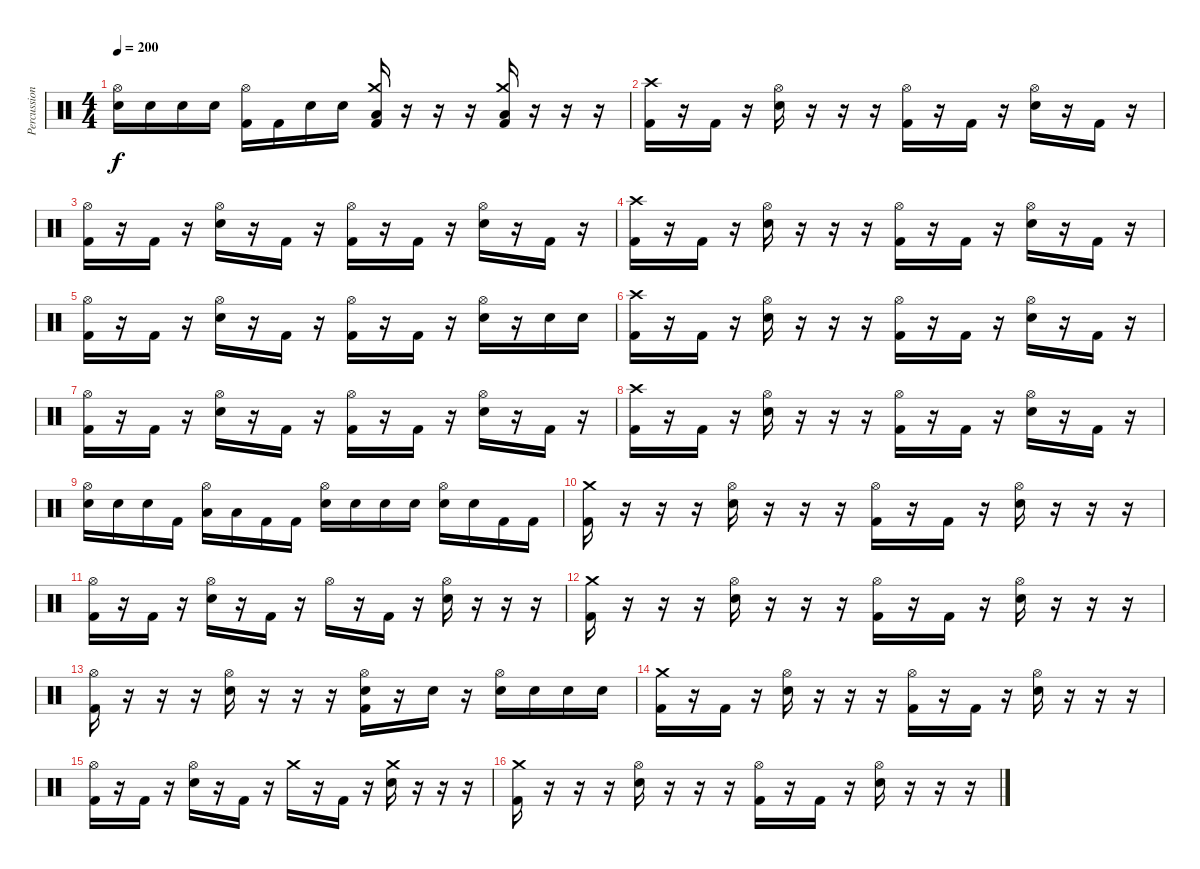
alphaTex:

\track ("Percussion" "Percussion") {instrument percussion}
\staff {score}
\articulation defaults
\ts (4 4)
\tempo 200
\clef neutral
\ks c
("Hi-Hat (open)" "Snare (hit) 2").16{dy f} "Snare (hit) 2".16 "Snare (hit) 2".16 "Snare (hit) 2".16 ("Hi-Hat (open)" "Kick (hit) 2").16 "Kick (hit) 2".16 "Snare (hit) 2".16 "Snare (hit) 2".16 ("Crash medium (hit)" "Low Floor Tom (hit)" "Kick (hit) 2").16 r.16 r.16 r.16 ("Crash medium (hit)" "Low Floor Tom (hit)" "Kick (hit) 2").16 r.16 r.16 r.16 |
("Crash high (hit)" "Kick (hit) 2").16 r.16 "Kick (hit) 2".16 r.16 ("Hi-Hat (open)" "Snare (hit) 2").16 r.16 r.16 r.16 ("Hi-Hat (open)" "Kick (hit) 2").16 r.16 "Kick (hit) 2".16 r.16 ("Hi-Hat (open)" "Snare (hit) 2").16 r.16 "Kick (hit) 2".16 r.16 |
("Hi-Hat (open)" "Kick (hit) 2").16 r.16 "Kick (hit) 2".16 r.16 ("Hi-Hat (open)" "Snare (hit) 2").16 r.16 "Kick (hit) 2".16 r.16 ("Hi-Hat (open)" "Kick (hit) 2").16 r.16 "Kick (hit) 2".16 r.16 ("Hi-Hat (open)" "Snare (hit) 2").16 r.16 "Kick (hit) 2".16 r.16 |
("Crash high (hit)" "Kick (hit) 2").16 r.16 "Kick (hit) 2".16 r.16 ("Hi-Hat (open)" "Snare (hit) 2").16 r.16 r.16 r.16 ("Hi-Hat (open)" "Kick (hit) 2").16 r.16 "Kick (hit) 2".16 r.16 ("Hi-Hat (open)" "Snare (hit) 2").16 r.16 "Kick (hit) 2".16 r.16 |
("Hi-Hat (open)" "Kick (hit) 2").16 r.16 "Kick (hit) 2".16 r.16 ("Hi-Hat (open)" "Snare (hit) 2").16 r.16 "Kick (hit) 2".16 r.16 ("Hi-Hat (open)" "Kick (hit) 2").16 r.16 "Kick (hit) 2".16 r.16 ("Hi-Hat (open)" "Snare (hit) 2").16 r.16 "Snare (hit) 2".16 "Snare (hit) 2".16 |
("Crash high (hit)" "Kick (hit) 2").16 r.16 "Kick (hit) 2".16 r.16 ("Hi-Hat (open)" "Snare (hit) 2").16 r.16 r.16 r.16 ("Hi-Hat (open)" "Kick (hit) 2").16 r.16 "Kick (hit) 2".16 r.16 ("Hi-Hat (open)" "Snare (hit) 2").16 r.16 "Kick (hit) 2".16 r.16 |
("Hi-Hat (open)" "Kick (hit) 2").16 r.16 "Kick (hit) 2".16 r.16 ("Hi-Hat (open)" "Snare (hit) 2").16 r.16 "Kick (hit) 2".16 r.16 ("Hi-Hat (open)" "Kick (hit) 2").16 r.16 "Kick (hit) 2".16 r.16 ("Hi-Hat (open)" "Snare (hit) 2").16 r.16 "Kick (hit) 2".16 r.16 |
("Crash high (hit)" "Kick (hit) 2").16 r.16 "Kick (hit) 2".16 r.16 ("Hi-Hat (open)" "Snare (hit) 2").16 r.16 r.16 r.16 ("Hi-Hat (open)" "Kick (hit) 2").16 r.16 "Kick (hit) 2".16 r.16 ("Hi-Hat (open)" "Snare (hit) 2").16 r.16 "Kick (hit) 2".16 r.16 |
("Hi-Hat (open)" "Snare (hit) 2").16 "Snare (hit) 2".16 "Snare (hit) 2".16 "Kick (hit) 2".16 ("Hi-Hat (open)" "Low Tom (hit)").16 "Low Tom (hit)".16 "Kick (hit) 2".16 "Kick (hit) 2".16 ("Hi-Hat (open)" "Snare (hit) 2").16 "Snare (hit) 2".16 "Snare (hit) 2".16 "Snare (hit) 2".16 ("Hi-Hat (open)" "Snare (hit) 2").16 "Snare (hit) 2".16 "Kick (hit) 2".16 "Kick (hit) 2".16 |
("Crash medium (hit)" "Kick (hit) 2").16 r.16 r.16 r.16 ("Hi-Hat (open)" "Snare (hit) 2").16 r.16 r.16 r.16 ("Hi-Hat (open)" "Kick (hit) 2").16 r.16 "Kick (hit) 2".16 r.16 ("Hi-Hat (open)" "Snare (hit) 2").16 r.16 r.16 r.16 |
("Hi-Hat (open)" "Kick (hit) 2").16 r.16 "Kick (hit) 2".16 r.16 ("Hi-Hat (open)" "Snare (hit) 2").16 r.16 "Kick (hit) 2".16 r.16 "Hi-Hat (open)".16 r.16 "Kick (hit) 2".16 r.16 ("Hi-Hat (open)" "Snare (hit) 2").16 r.16 r.16 r.16 |
("Crash medium (hit)" "Kick (hit) 2").16 r.16 r.16 r.16 ("Hi-Hat (open)" "Snare (hit) 2").16 r.16 r.16 r.16 ("Hi-Hat (open)" "Kick (hit) 2").16 r.16 "Kick (hit) 2".16 r.16 ("Hi-Hat (open)" "Snare (hit) 2").16 r.16 r.16 r.16 |
("Hi-Hat (open)" "Kick (hit) 2").16 r.16 r.16 r.16 ("Hi-Hat (open)" "Snare (hit) 2").16 r.16 r.16 r.16 ("Hi-Hat (open)" "Snare (hit) 2" "Kick (hit) 2").16 r.16 "Snare (hit) 2".16 r.16 ("Hi-Hat (open)" "Snare (hit) 2").16 "Snare (hit) 2".16 "Snare (hit) 2".16 "Snare (hit) 2".16 |
("Crash medium (hit)" "Kick (hit) 2").16 r.16 "Kick (hit) 2".16 r.16 ("Hi-Hat (open)" "Snare (hit) 2").16 r.16 r.16 r.16 ("Hi-Hat (open)" "Kick (hit) 2").16 r.16 "Kick (hit) 2".16 r.16 ("Hi-Hat (open)" "Snare (hit) 2").16 r.16 r.16 r.16 |
("Hi-Hat (open)" "Kick (hit) 2").16 r.16 "Kick (hit) 2".16 r.16 ("Hi-Hat (open)" "Snare (hit) 2").16 r.16 "Kick (hit) 2".16 r.16 "Crash medium (hit)".16 r.16 "Kick (hit) 2".16 r.16 ("Crash medium (hit)" "Snare (hit) 2").16 r.16 r.16 r.16 |
("Crash medium (hit)" "Kick (hit) 2").16 r.16 r.16 r.16 ("Hi-Hat (open)" "Snare (hit) 2").16 r.16 r.16 r.16 ("Hi-Hat (open)" "Kick (hit) 2").16 r.16 "Kick (hit) 2".16 r.16 ("Hi-Hat (open)" "Snare (hit) 2").16 r.16 r.16 r.16
